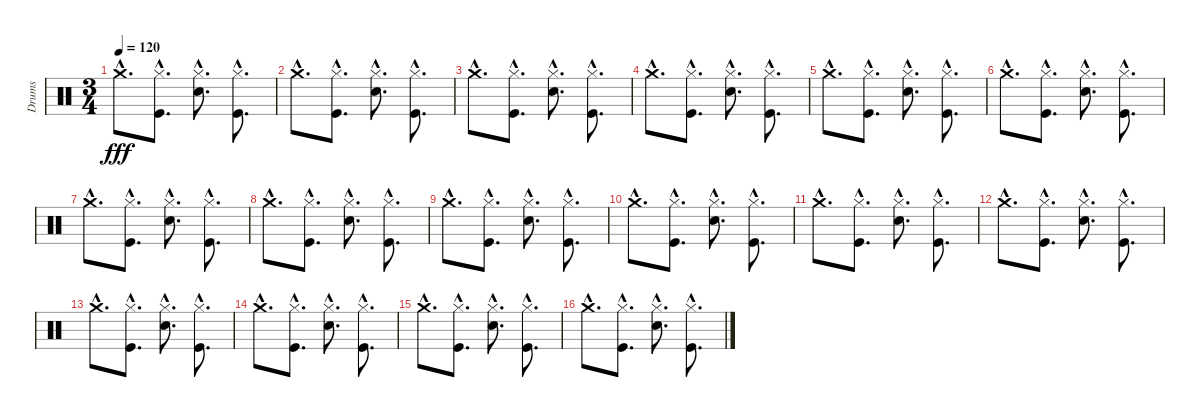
\track ("Drums" "Drums") {instrument percussion}
\staff {score}
\articulation defaults
\ts (3 4)
\tempo 120
\clef neutral
\ks c "Crash medium (hit)"{hac}.8{d dy fff}
("Kick (hit)"{hac} "Hi-Hat (closed)"{hac}).8{d} ("Snare (hit) 2"{hac} "Hi-Hat (closed)"{hac}).8{d} ("Kick (hit)"{hac} "Hi-Hat (closed)"{hac}).8{d} |
"Crash medium (hit)"{hac}.8{d} ("Kick (hit)"{hac} "Hi-Hat (closed)"{hac}).8{d} ("Snare (hit) 2"{hac} "Hi-Hat (closed)"{hac}).8{d} ("Kick (hit)"{hac} "Hi-Hat (closed)"{hac}).8{d} |
"Crash medium (hit)"{hac}.8{d} ("Kick (hit)"{hac} "Hi-Hat (closed)"{hac}).8{d} ("Snare (hit) 2"{hac} "Hi-Hat (closed)"{hac}).8{d} ("Kick (hit)"{hac} "Hi-Hat (closed)"{hac}).8{d} |
"Crash medium (hit)"{hac}.8{d} ("Kick (hit)"{hac} "Hi-Hat (closed)"{hac}).8{d} ("Snare (hit) 2"{hac} "Hi-Hat (closed)"{hac}).8{d} ("Kick (hit)"{hac} "Hi-Hat (closed)"{hac}).8{d} |
"Crash medium (hit)"{hac}.8{d} ("Kick (hit)"{hac} "Hi-Hat (closed)"{hac}).8{d} ("Snare (hit) 2"{hac} "Hi-Hat (closed)"{hac}).8{d} ("Kick (hit)"{hac} "Hi-Hat (closed)"{hac}).8{d} |
"Crash medium (hit)"{hac}.8{d} ("Kick (hit)"{hac} "Hi-Hat (closed)"{hac}).8{d} ("Snare (hit) 2"{hac} "Hi-Hat (closed)"{hac}).8{d} ("Kick (hit)"{hac} "Hi-Hat (closed)"{hac}).8{d} |
"Crash medium (hit)"{hac}.8{d} ("Kick (hit)"{hac} "Hi-Hat (closed)"{hac}).8{d} ("Snare (hit) 2"{hac} "Hi-Hat (closed)"{hac}).8{d} ("Kick (hit)"{hac} "Hi-Hat (closed)"{hac}).8{d} |
"Crash medium (hit)"{hac}.8{d} ("Kick (hit)"{hac} "Hi-Hat (closed)"{hac}).8{d} ("Snare (hit) 2"{hac} "Hi-Hat (closed)"{hac}).8{d} ("Kick (hit)"{hac} "Hi-Hat (closed)"{hac}).8{d} |
"Crash medium (hit)"{hac}.8{d} ("Kick (hit)"{hac} "Hi-Hat (closed)"{hac}).8{d} ("Snare (hit) 2"{hac} "Hi-Hat (closed)"{hac}).8{d} ("Kick (hit)"{hac} "Hi-Hat (closed)"{hac}).8{d} |
"Crash medium (hit)"{hac}.8{d} ("Kick (hit)"{hac} "Hi-Hat (closed)"{hac}).8{d} ("Snare (hit) 2"{hac} "Hi-Hat (closed)"{hac}).8{d} ("Kick (hit)"{hac} "Hi-Hat (closed)"{hac}).8{d} |
"Crash medium (hit)"{hac}.8{d} ("Kick (hit)"{hac} "Hi-Hat (closed)"{hac}).8{d} ("Snare (hit) 2"{hac} "Hi-Hat (closed)"{hac}).8{d} ("Kick (hit)"{hac} "Hi-Hat (closed)"{hac}).8{d} |
"Crash medium (hit)"{hac}.8{d} ("Kick (hit)"{hac} "Hi-Hat (closed)"{hac}).8{d} ("Snare (hit) 2"{hac} "Hi-Hat (closed)"{hac}).8{d} ("Kick (hit)"{hac} "Hi-Hat (closed)"{hac}).8{d} |
"Crash medium (hit)"{hac}.8{d} ("Kick (hit)"{hac} "Hi-Hat (closed)"{hac}).8{d} ("Snare (hit) 2"{hac} "Hi-Hat (closed)"{hac}).8{d} ("Kick (hit)"{hac} "Hi-Hat (closed)"{hac}).8{d} |
"Crash medium (hit)"{hac}.8{d} ("Kick (hit)"{hac} "Hi-Hat (closed)"{hac}).8{d} ("Snare (hit) 2"{hac} "Hi-Hat (closed)"{hac}).8{d} ("Kick (hit)"{hac} "Hi-Hat (closed)"{hac}).8{d} |
"Crash medium (hit)"{hac}.8{d} ("Kick (hit)"{hac} "Hi-Hat (closed)"{hac}).8{d} ("Snare (hit) 2"{hac} "Hi-Hat (closed)"{hac}).8{d} ("Kick (hit)"{hac} "Hi-Hat (closed)"{hac}).8{d} |
"Crash medium (hit)"{hac}.8{d} ("Kick (hit)"{hac} "Hi-Hat (closed)"{hac}).8{d} ("Snare (hit) 2"{hac} "Hi-Hat (closed)"{hac}).8{d} ("Kick (hit)"{hac} "Hi-Hat (closed)"{hac}).8{d}
